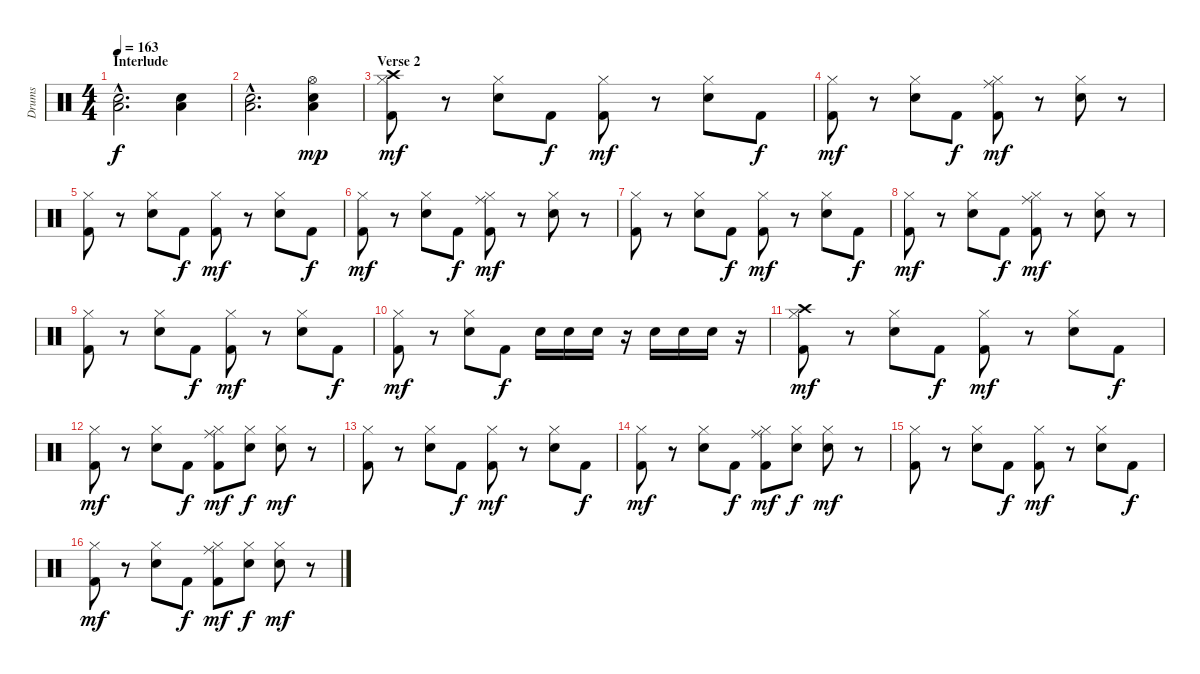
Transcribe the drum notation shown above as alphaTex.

\track ("Drums" "Drums") {instrument percussion}
\staff {score}
\articulation defaults
\ts (4 4)
\section ("" "Interlude")
\tempo 163
\clef neutral
\ks c
("Low Tom (hit)"{hac} "Electric Snare (hit)"{hac}).2{d dy f} ("Low Tom (hit)" "Electric Snare (hit)").4 |
("Low Tom (hit)"{hac} "Electric Snare (hit)"{hac}).2{d} ("Hi-Hat (open)" "Low Tom (hit)" "Electric Snare (hit)").4{dy mp} |
\section ("" "Verse 2")
("Crash high (hit)" "Hi-Hat (closed)" "Kick (hit) 2").8{dy mf} r.8 ("Hi-Hat (closed)" "Electric Snare (hit)").8 "Kick (hit) 2".8{dy f} ("Hi-Hat (closed)" "Kick (hit) 2").8{dy mf} r.8 ("Hi-Hat (closed)" "Electric Snare (hit)").8 "Kick (hit) 2".8{dy f} |
("Hi-Hat (closed)" "Kick (hit) 2").8{dy mf} r.8 ("Hi-Hat (closed)" "Electric Snare (hit)").8 "Kick (hit) 2".8{dy f} ("Ride (middle)" "Hi-Hat (closed)" "Kick (hit) 2").8{dy mf} r.8 ("Hi-Hat (closed)" "Electric Snare (hit)").8 r.8 |
("Hi-Hat (closed)" "Kick (hit) 2").8 r.8 ("Hi-Hat (closed)" "Electric Snare (hit)").8 "Kick (hit) 2".8{dy f} ("Hi-Hat (closed)" "Kick (hit) 2").8{dy mf} r.8 ("Hi-Hat (closed)" "Electric Snare (hit)").8 "Kick (hit) 2".8{dy f} |
("Hi-Hat (closed)" "Kick (hit) 2").8{dy mf} r.8 ("Hi-Hat (closed)" "Electric Snare (hit)").8 "Kick (hit) 2".8{dy f} ("Ride (middle)" "Hi-Hat (closed)" "Kick (hit) 2").8{dy mf} r.8 ("Hi-Hat (closed)" "Electric Snare (hit)").8 r.8 |
("Hi-Hat (closed)" "Kick (hit) 2").8 r.8 ("Hi-Hat (closed)" "Electric Snare (hit)").8 "Kick (hit) 2".8{dy f} ("Hi-Hat (closed)" "Kick (hit) 2").8{dy mf} r.8 ("Hi-Hat (closed)" "Electric Snare (hit)").8 "Kick (hit) 2".8{dy f} |
("Hi-Hat (closed)" "Kick (hit) 2").8{dy mf} r.8 ("Hi-Hat (closed)" "Electric Snare (hit)").8 "Kick (hit) 2".8{dy f} ("Ride (middle)" "Hi-Hat (closed)" "Kick (hit) 2").8{dy mf} r.8 ("Hi-Hat (closed)" "Electric Snare (hit)").8 r.8 |
("Hi-Hat (closed)" "Kick (hit) 2").8 r.8 ("Hi-Hat (closed)" "Electric Snare (hit)").8 "Kick (hit) 2".8{dy f} ("Hi-Hat (closed)" "Kick (hit) 2").8{dy mf} r.8 ("Hi-Hat (closed)" "Electric Snare (hit)").8 "Kick (hit) 2".8{dy f} |
("Hi-Hat (closed)" "Kick (hit) 2").8{dy mf} r.8 ("Hi-Hat (closed)" "Electric Snare (hit)").8 "Kick (hit) 2".8{dy f} "Electric Snare (hit)".16 "Electric Snare (hit)".16 "Electric Snare (hit)".16 r.16 "Electric Snare (hit)".16 "Electric Snare (hit)".16 "Electric Snare (hit)".16 r.16 |
("Crash high (hit)" "Hi-Hat (closed)" "Kick (hit) 2").8{dy mf} r.8 ("Hi-Hat (closed)" "Electric Snare (hit)").8 "Kick (hit) 2".8{dy f} ("Hi-Hat (closed)" "Kick (hit) 2").8{dy mf} r.8 ("Hi-Hat (closed)" "Electric Snare (hit)").8 "Kick (hit) 2".8{dy f} |
("Hi-Hat (closed)" "Kick (hit) 2").8{dy mf} r.8 ("Hi-Hat (closed)" "Electric Snare (hit)").8 "Kick (hit) 2".8{dy f} ("Ride (middle)" "Hi-Hat (closed)" "Kick (hit) 2").8{dy mf} ("Hi-Hat (closed)" "Electric Snare (hit)").8{dy f} ("Hi-Hat (closed)" "Electric Snare (hit)").8{dy mf} r.8 |
("Hi-Hat (closed)" "Kick (hit) 2").8 r.8 ("Hi-Hat (closed)" "Electric Snare (hit)").8 "Kick (hit) 2".8{dy f} ("Hi-Hat (closed)" "Kick (hit) 2").8{dy mf} r.8 ("Hi-Hat (closed)" "Electric Snare (hit)").8 "Kick (hit) 2".8{dy f} |
("Hi-Hat (closed)" "Kick (hit) 2").8{dy mf} r.8 ("Hi-Hat (closed)" "Electric Snare (hit)").8 "Kick (hit) 2".8{dy f} ("Ride (middle)" "Hi-Hat (closed)" "Kick (hit) 2").8{dy mf} ("Hi-Hat (closed)" "Electric Snare (hit)").8{dy f} ("Hi-Hat (closed)" "Electric Snare (hit)").8{dy mf} r.8 |
("Hi-Hat (closed)" "Kick (hit) 2").8 r.8 ("Hi-Hat (closed)" "Electric Snare (hit)").8 "Kick (hit) 2".8{dy f} ("Hi-Hat (closed)" "Kick (hit) 2").8{dy mf} r.8 ("Hi-Hat (closed)" "Electric Snare (hit)").8 "Kick (hit) 2".8{dy f} |
("Hi-Hat (closed)" "Kick (hit) 2").8{dy mf} r.8 ("Hi-Hat (closed)" "Electric Snare (hit)").8 "Kick (hit) 2".8{dy f} ("Ride (middle)" "Hi-Hat (closed)" "Kick (hit) 2").8{dy mf} ("Hi-Hat (closed)" "Electric Snare (hit)").8{dy f} ("Hi-Hat (closed)" "Electric Snare (hit)").8{dy mf} r.8
